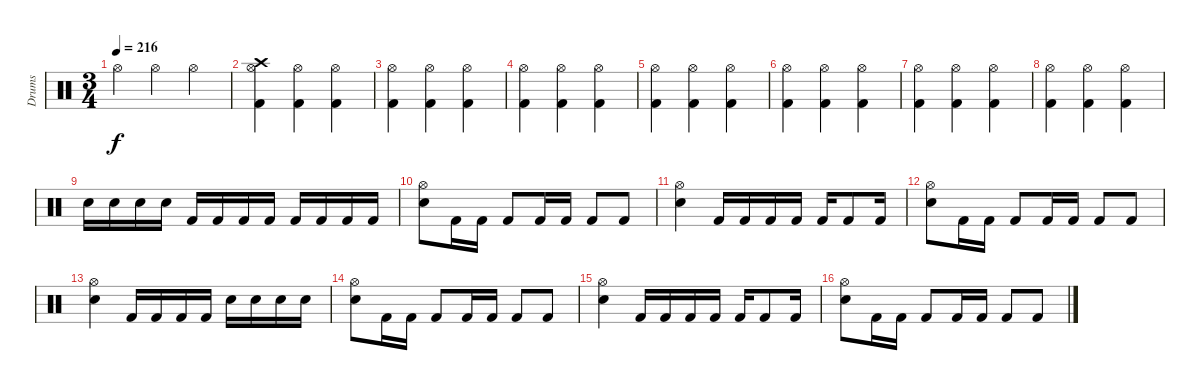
\track ("Drums" "Drums") {instrument percussion}
\staff {score}
\articulation defaults
\ts (3 4)
\tempo 216
\clef neutral
\ks c "Hi-Hat (open)".4{dy f} "Hi-Hat (open)".4 "Hi-Hat (open)".4
|
("Crash high (hit)" "Hi-Hat (open)" "Kick (hit) 2").4 ("Hi-Hat (open)" "Kick (hit) 2").4 ("Hi-Hat (open)" "Kick (hit) 2").4 |
("Hi-Hat (open)" "Kick (hit) 2").4 ("Hi-Hat (open)" "Kick (hit) 2").4 ("Hi-Hat (open)" "Kick (hit) 2").4 |
("Hi-Hat (open)" "Kick (hit) 2").4 ("Hi-Hat (open)" "Kick (hit) 2").4 ("Hi-Hat (open)" "Kick (hit) 2").4 |
("Hi-Hat (open)" "Kick (hit) 2").4 ("Hi-Hat (open)" "Kick (hit) 2").4 ("Hi-Hat (open)" "Kick (hit) 2").4 |
("Hi-Hat (open)" "Kick (hit) 2").4 ("Hi-Hat (open)" "Kick (hit) 2").4 ("Hi-Hat (open)" "Kick (hit) 2").4 |
("Hi-Hat (open)" "Kick (hit) 2").4 ("Hi-Hat (open)" "Kick (hit) 2").4 ("Hi-Hat (open)" "Kick (hit) 2").4 |
("Hi-Hat (open)" "Kick (hit) 2").4 ("Hi-Hat (open)" "Kick (hit) 2").4 ("Hi-Hat (open)" "Kick (hit) 2").4 |
"Electric Snare (hit)".16 "Electric Snare (hit)".16 "Electric Snare (hit)".16 "Electric Snare (hit)".16 "Kick (hit) 2".16 "Kick (hit) 2".16 "Kick (hit) 2".16 "Kick (hit) 2".16 "Kick (hit) 2".16 "Kick (hit) 2".16 "Kick (hit) 2".16 "Kick (hit) 2".16 |
("Hi-Hat (open)" "Electric Snare (hit)").8 "Kick (hit) 2".16 "Kick (hit) 2".16 "Kick (hit) 2".8 "Kick (hit) 2".16 "Kick (hit) 2".16 "Kick (hit) 2".8 "Kick (hit) 2".8 |
("Hi-Hat (open)" "Electric Snare (hit)").4 "Kick (hit) 2".16 "Kick (hit) 2".16 "Kick (hit) 2".16 "Kick (hit) 2".16 "Kick (hit) 2".16 "Kick (hit) 2".8 "Kick (hit) 2".16 |
("Hi-Hat (open)" "Electric Snare (hit)").8 "Kick (hit) 2".16 "Kick (hit) 2".16 "Kick (hit) 2".8 "Kick (hit) 2".16 "Kick (hit) 2".16 "Kick (hit) 2".8 "Kick (hit) 2".8 |
("Hi-Hat (open)" "Electric Snare (hit)").4 "Kick (hit) 2".16 "Kick (hit) 2".16 "Kick (hit) 2".16 "Kick (hit) 2".16 "Electric Snare (hit)".16 "Electric Snare (hit)".16 "Electric Snare (hit)".16 "Electric Snare (hit)".16 |
("Hi-Hat (open)" "Electric Snare (hit)").8 "Kick (hit) 2".16 "Kick (hit) 2".16 "Kick (hit) 2".8 "Kick (hit) 2".16 "Kick (hit) 2".16 "Kick (hit) 2".8 "Kick (hit) 2".8 |
("Hi-Hat (open)" "Electric Snare (hit)").4 "Kick (hit) 2".16 "Kick (hit) 2".16 "Kick (hit) 2".16 "Kick (hit) 2".16 "Kick (hit) 2".16 "Kick (hit) 2".8 "Kick (hit) 2".16 |
("Hi-Hat (open)" "Electric Snare (hit)").8 "Kick (hit) 2".16 "Kick (hit) 2".16 "Kick (hit) 2".8 "Kick (hit) 2".16 "Kick (hit) 2".16 "Kick (hit) 2".8 "Kick (hit) 2".8
